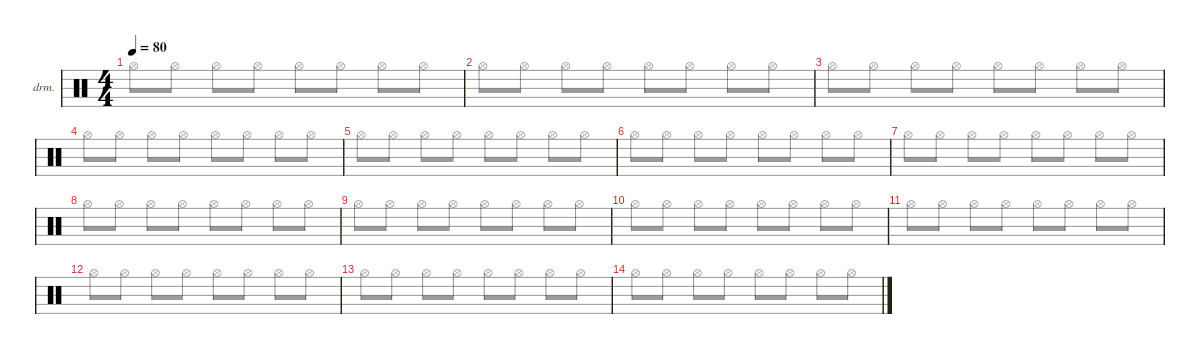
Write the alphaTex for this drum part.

\defaultSystemsLayout 4
\hideDynamics
\bracketExtendMode nobrackets
\firstSystemTrackNameOrientation horizontal
\otherSystemsTrackNameOrientation horizontal
\track ("Drumkit" "drm.") {instrument percussion}
\staff {score}
\articulation defaults
\voice
\ts (4 4)
\tempo 80
\clef neutral
\ks c
|
|
|
|
|
|
|
|
|
|
|
|
|
|
|
\voice
\clef neutral
\ks c "Hi-Hat (open)".8{dy mf beam Down} "Hi-Hat (open)".8{beam Down} "Hi-Hat (open)".8{beam Down} "Hi-Hat (open)".8{beam Down} "Hi-Hat (open)".8{beam Down} "Hi-Hat (open)".8{beam Down} "Hi-Hat (open)".8{beam Down} "Hi-Hat (open)".8{beam Down}
|
"Hi-Hat (open)".8{beam Down} "Hi-Hat (open)".8{beam Down} "Hi-Hat (open)".8{beam Down} "Hi-Hat (open)".8{beam Down} "Hi-Hat (open)".8{beam Down} "Hi-Hat (open)".8{beam Down} "Hi-Hat (open)".8{beam Down} "Hi-Hat (open)".8{beam Down} |
"Hi-Hat (open)".8{beam Down} "Hi-Hat (open)".8{beam Down} "Hi-Hat (open)".8{beam Down} "Hi-Hat (open)".8{beam Down} "Hi-Hat (open)".8{beam Down} "Hi-Hat (open)".8{beam Down} "Hi-Hat (open)".8{beam Down} "Hi-Hat (open)".8{beam Down} |
"Hi-Hat (open)".8{beam Down} "Hi-Hat (open)".8{beam Down} "Hi-Hat (open)".8{beam Down} "Hi-Hat (open)".8{beam Down} "Hi-Hat (open)".8{beam Down} "Hi-Hat (open)".8{beam Down} "Hi-Hat (open)".8{beam Down} "Hi-Hat (open)".8{beam Down} |
"Hi-Hat (open)".8{beam Down} "Hi-Hat (open)".8{beam Down} "Hi-Hat (open)".8{beam Down} "Hi-Hat (open)".8{beam Down} "Hi-Hat (open)".8{beam Down} "Hi-Hat (open)".8{beam Down} "Hi-Hat (open)".8{beam Down} "Hi-Hat (open)".8{beam Down} |
"Hi-Hat (open)".8{beam Down} "Hi-Hat (open)".8{beam Down} "Hi-Hat (open)".8{beam Down} "Hi-Hat (open)".8{beam Down} "Hi-Hat (open)".8{beam Down} "Hi-Hat (open)".8{beam Down} "Hi-Hat (open)".8{beam Down} "Hi-Hat (open)".8{beam Down} |
"Hi-Hat (open)".8{beam Down} "Hi-Hat (open)".8{beam Down} "Hi-Hat (open)".8{beam Down} "Hi-Hat (open)".8{beam Down} "Hi-Hat (open)".8{beam Down} "Hi-Hat (open)".8{beam Down} "Hi-Hat (open)".8{beam Down} "Hi-Hat (open)".8{beam Down} |
"Hi-Hat (open)".8{beam Down} "Hi-Hat (open)".8{beam Down} "Hi-Hat (open)".8{beam Down} "Hi-Hat (open)".8{beam Down} "Hi-Hat (open)".8{beam Down} "Hi-Hat (open)".8{beam Down} "Hi-Hat (open)".8{beam Down} "Hi-Hat (open)".8{beam Down} |
"Hi-Hat (open)".8{beam Down} "Hi-Hat (open)".8{beam Down} "Hi-Hat (open)".8{beam Down} "Hi-Hat (open)".8{beam Down} "Hi-Hat (open)".8{beam Down} "Hi-Hat (open)".8{beam Down} "Hi-Hat (open)".8{beam Down} "Hi-Hat (open)".8{beam Down} |
"Hi-Hat (open)".8{beam Down} "Hi-Hat (open)".8{beam Down} "Hi-Hat (open)".8{beam Down} "Hi-Hat (open)".8{beam Down} "Hi-Hat (open)".8{beam Down} "Hi-Hat (open)".8{beam Down} "Hi-Hat (open)".8{beam Down} "Hi-Hat (open)".8{beam Down} |
"Hi-Hat (open)".8{beam Down} "Hi-Hat (open)".8{beam Down} "Hi-Hat (open)".8{beam Down} "Hi-Hat (open)".8{beam Down} "Hi-Hat (open)".8{beam Down} "Hi-Hat (open)".8{beam Down} "Hi-Hat (open)".8{beam Down} "Hi-Hat (open)".8{beam Down} |
"Hi-Hat (open)".8{beam Down} "Hi-Hat (open)".8{beam Down} "Hi-Hat (open)".8{beam Down} "Hi-Hat (open)".8{beam Down} "Hi-Hat (open)".8{beam Down} "Hi-Hat (open)".8{beam Down} "Hi-Hat (open)".8{beam Down} "Hi-Hat (open)".8{beam Down} |
"Hi-Hat (open)".8{beam Down} "Hi-Hat (open)".8{beam Down} "Hi-Hat (open)".8{beam Down} "Hi-Hat (open)".8{beam Down} "Hi-Hat (open)".8{beam Down} "Hi-Hat (open)".8{beam Down} "Hi-Hat (open)".8{beam Down} "Hi-Hat (open)".8{beam Down} |
"Hi-Hat (open)".8{beam Down} "Hi-Hat (open)".8{beam Down} "Hi-Hat (open)".8{beam Down} "Hi-Hat (open)".8{beam Down} "Hi-Hat (open)".8{beam Down} "Hi-Hat (open)".8{beam Down} "Hi-Hat (open)".8{beam Down} "Hi-Hat (open)".8{beam Down} |
|
